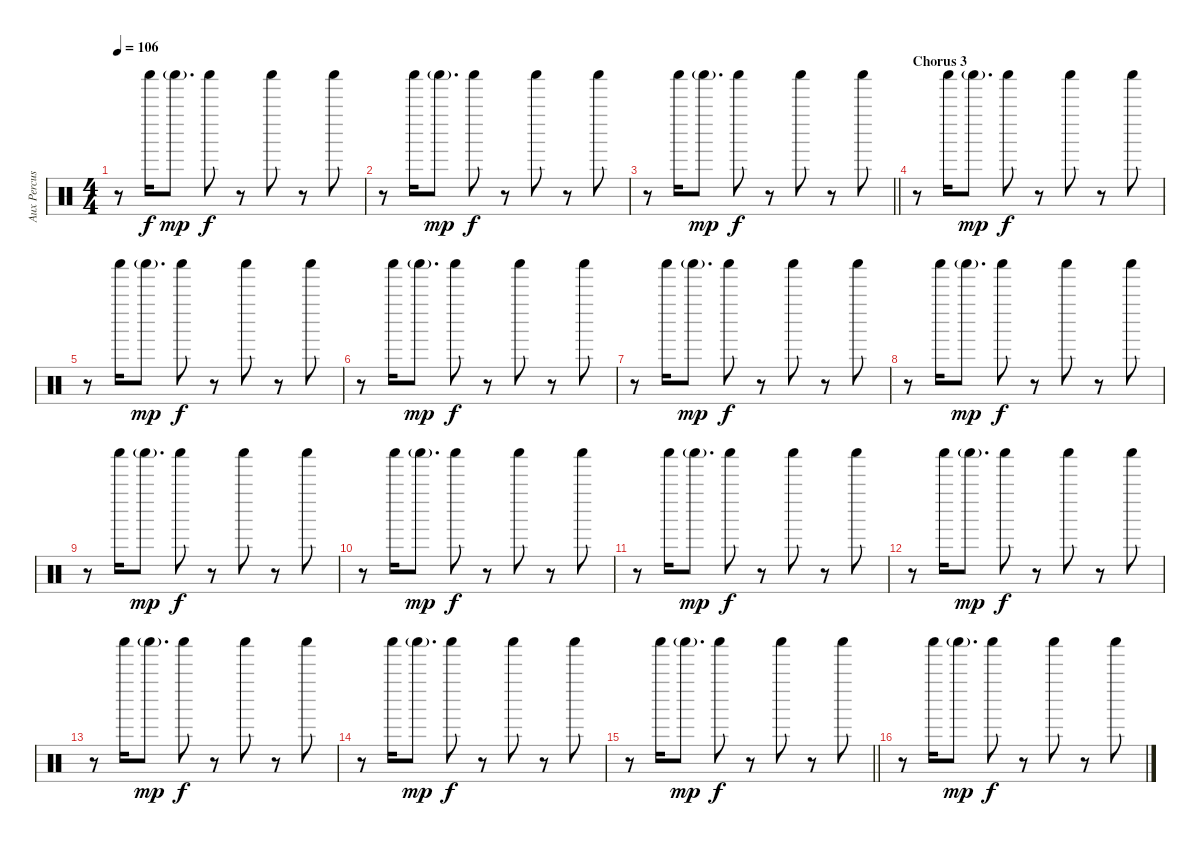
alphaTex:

\track ("Aux Percussion" "Aux Percus") {instrument percussion}
\staff {score}
\articulation defaults
\ts (4 4)
\tempo 106
\clef neutral
\ks c
r.8{dy f} "Shaker (hit)".16 "Shaker (hit)"{g}.8{d dy mp} "Shaker (hit)".8{dy f} r.8 "Shaker (hit)".8 r.8 "Shaker (hit)".8 |
r.8 "Shaker (hit)".16 "Shaker (hit)"{g}.8{d dy mp} "Shaker (hit)".8{dy f} r.8 "Shaker (hit)".8 r.8 "Shaker (hit)".8 |
\barLineRight lightlight
r.8 "Shaker (hit)".16 "Shaker (hit)"{g}.8{d dy mp} "Shaker (hit)".8{dy f} r.8 "Shaker (hit)".8 r.8 "Shaker (hit)".8 |
\section ("" "Chorus 3")
r.8 "Shaker (hit)".16 "Shaker (hit)"{g}.8{d dy mp} "Shaker (hit)".8{dy f} r.8 "Shaker (hit)".8 r.8 "Shaker (hit)".8 |
r.8 "Shaker (hit)".16 "Shaker (hit)"{g}.8{d dy mp} "Shaker (hit)".8{dy f} r.8 "Shaker (hit)".8 r.8 "Shaker (hit)".8 |
r.8 "Shaker (hit)".16 "Shaker (hit)"{g}.8{d dy mp} "Shaker (hit)".8{dy f} r.8 "Shaker (hit)".8 r.8 "Shaker (hit)".8 |
r.8 "Shaker (hit)".16 "Shaker (hit)"{g}.8{d dy mp} "Shaker (hit)".8{dy f} r.8 "Shaker (hit)".8 r.8 "Shaker (hit)".8 |
r.8 "Shaker (hit)".16 "Shaker (hit)"{g}.8{d dy mp} "Shaker (hit)".8{dy f} r.8 "Shaker (hit)".8 r.8 "Shaker (hit)".8 |
r.8 "Shaker (hit)".16 "Shaker (hit)"{g}.8{d dy mp} "Shaker (hit)".8{dy f} r.8 "Shaker (hit)".8 r.8 "Shaker (hit)".8 |
r.8 "Shaker (hit)".16 "Shaker (hit)"{g}.8{d dy mp} "Shaker (hit)".8{dy f} r.8 "Shaker (hit)".8 r.8 "Shaker (hit)".8 |
r.8 "Shaker (hit)".16 "Shaker (hit)"{g}.8{d dy mp} "Shaker (hit)".8{dy f} r.8 "Shaker (hit)".8 r.8 "Shaker (hit)".8 |
r.8 "Shaker (hit)".16 "Shaker (hit)"{g}.8{d dy mp} "Shaker (hit)".8{dy f} r.8 "Shaker (hit)".8 r.8 "Shaker (hit)".8 |
r.8 "Shaker (hit)".16 "Shaker (hit)"{g}.8{d dy mp} "Shaker (hit)".8{dy f} r.8 "Shaker (hit)".8 r.8 "Shaker (hit)".8 |
r.8 "Shaker (hit)".16 "Shaker (hit)"{g}.8{d dy mp} "Shaker (hit)".8{dy f} r.8 "Shaker (hit)".8 r.8 "Shaker (hit)".8 |
\barLineRight lightlight
r.8 "Shaker (hit)".16 "Shaker (hit)"{g}.8{d dy mp} "Shaker (hit)".8{dy f} r.8 "Shaker (hit)".8 r.8 "Shaker (hit)".8 |
r.8 "Shaker (hit)".16 "Shaker (hit)"{g}.8{d dy mp} "Shaker (hit)".8{dy f} r.8 "Shaker (hit)".8 r.8 "Shaker (hit)".8
